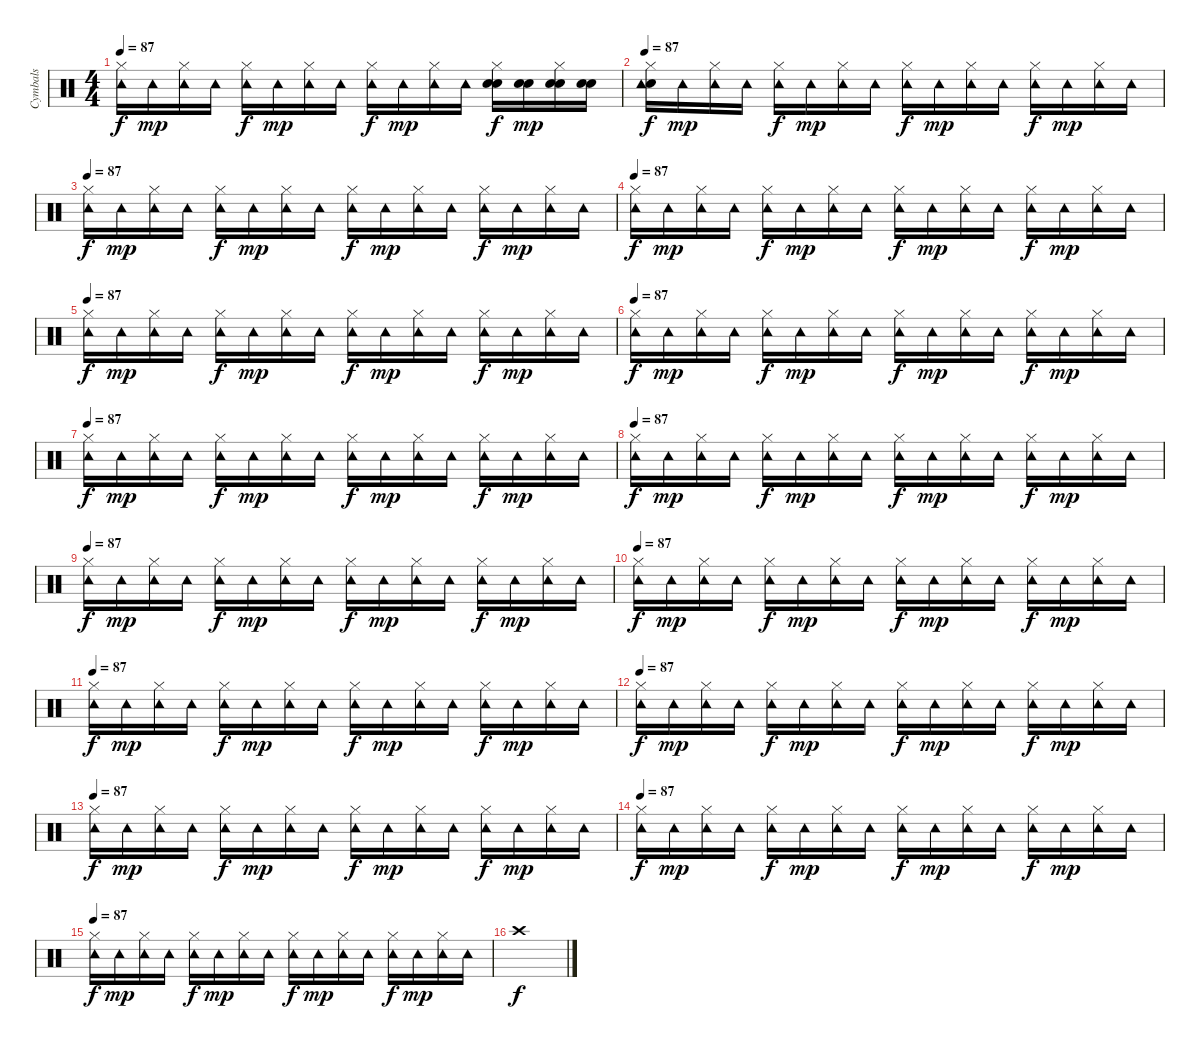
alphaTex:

\track ("Cymbals" "Cymbals") {instrument percussion}
\staff {score}
\articulation defaults
\ts (4 4)
\tempo 87
\clef neutral
\ks c
("Hi-Hat (closed)" "Tambourine (hit)").16{dy f} "Tambourine (hit)".16{dy mp} ("Hi-Hat (closed)" "Tambourine (hit)").16 "Tambourine (hit)".16 ("Hi-Hat (closed)" "Tambourine (hit)").16{dy f} "Tambourine (hit)".16{dy mp} ("Hi-Hat (closed)" "Tambourine (hit)").16 "Tambourine (hit)".16 ("Hi-Hat (closed)" "Tambourine (hit)").16{dy f} "Tambourine (hit)".16{dy mp} ("Hi-Hat (closed)" "Tambourine (hit)").16 "Tambourine (hit)".16 ("Electric Snare (hit)" "Hi-Hat (closed)" "Snare (hit) 2").16{dy f} ("Electric Snare (hit)" "Snare (hit) 2").16{dy mp} ("Electric Snare (hit)" "Hi-Hat (closed)" "Snare (hit) 2").16 ("Electric Snare (hit)" "Snare (hit) 2").16 |
\tempo 87
("Electric Snare (hit)" "Hi-Hat (closed)" "Tambourine (hit)").16{dy f} "Tambourine (hit)".16{dy mp} ("Hi-Hat (closed)" "Tambourine (hit)").16 "Tambourine (hit)".16 ("Hi-Hat (closed)" "Tambourine (hit)").16{dy f} "Tambourine (hit)".16{dy mp} ("Hi-Hat (closed)" "Tambourine (hit)").16 "Tambourine (hit)".16 ("Hi-Hat (closed)" "Tambourine (hit)").16{dy f} "Tambourine (hit)".16{dy mp} ("Hi-Hat (closed)" "Tambourine (hit)").16 "Tambourine (hit)".16 ("Hi-Hat (closed)" "Tambourine (hit)").16{dy f} "Tambourine (hit)".16{dy mp} ("Hi-Hat (closed)" "Tambourine (hit)").16 "Tambourine (hit)".16 |
\tempo 87
("Hi-Hat (closed)" "Tambourine (hit)").16{dy f} "Tambourine (hit)".16{dy mp} ("Hi-Hat (closed)" "Tambourine (hit)").16 "Tambourine (hit)".16 ("Hi-Hat (closed)" "Tambourine (hit)").16{dy f} "Tambourine (hit)".16{dy mp} ("Hi-Hat (closed)" "Tambourine (hit)").16 "Tambourine (hit)".16 ("Hi-Hat (closed)" "Tambourine (hit)").16{dy f} "Tambourine (hit)".16{dy mp} ("Hi-Hat (closed)" "Tambourine (hit)").16 "Tambourine (hit)".16 ("Hi-Hat (closed)" "Tambourine (hit)").16{dy f} "Tambourine (hit)".16{dy mp} ("Hi-Hat (closed)" "Tambourine (hit)").16 "Tambourine (hit)".16 |
\tempo 87
("Hi-Hat (closed)" "Tambourine (hit)").16{dy f} "Tambourine (hit)".16{dy mp} ("Hi-Hat (closed)" "Tambourine (hit)").16 "Tambourine (hit)".16 ("Hi-Hat (closed)" "Tambourine (hit)").16{dy f} "Tambourine (hit)".16{dy mp} ("Hi-Hat (closed)" "Tambourine (hit)").16 "Tambourine (hit)".16 ("Hi-Hat (closed)" "Tambourine (hit)").16{dy f} "Tambourine (hit)".16{dy mp} ("Hi-Hat (closed)" "Tambourine (hit)").16 "Tambourine (hit)".16 ("Hi-Hat (closed)" "Tambourine (hit)").16{dy f} "Tambourine (hit)".16{dy mp} ("Hi-Hat (closed)" "Tambourine (hit)").16 "Tambourine (hit)".16 |
\tempo 87
("Hi-Hat (closed)" "Tambourine (hit)").16{dy f} "Tambourine (hit)".16{dy mp} ("Hi-Hat (closed)" "Tambourine (hit)").16 "Tambourine (hit)".16 ("Hi-Hat (closed)" "Tambourine (hit)").16{dy f} "Tambourine (hit)".16{dy mp} ("Hi-Hat (closed)" "Tambourine (hit)").16 "Tambourine (hit)".16 ("Hi-Hat (closed)" "Tambourine (hit)").16{dy f} "Tambourine (hit)".16{dy mp} ("Hi-Hat (closed)" "Tambourine (hit)").16 "Tambourine (hit)".16 ("Hi-Hat (closed)" "Tambourine (hit)").16{dy f} "Tambourine (hit)".16{dy mp} ("Hi-Hat (closed)" "Tambourine (hit)").16 "Tambourine (hit)".16 |
\tempo 87
("Hi-Hat (closed)" "Tambourine (hit)").16{dy f} "Tambourine (hit)".16{dy mp} ("Hi-Hat (closed)" "Tambourine (hit)").16 "Tambourine (hit)".16 ("Hi-Hat (closed)" "Tambourine (hit)").16{dy f} "Tambourine (hit)".16{dy mp} ("Hi-Hat (closed)" "Tambourine (hit)").16 "Tambourine (hit)".16 ("Hi-Hat (closed)" "Tambourine (hit)").16{dy f} "Tambourine (hit)".16{dy mp} ("Hi-Hat (closed)" "Tambourine (hit)").16 "Tambourine (hit)".16 ("Hi-Hat (closed)" "Tambourine (hit)").16{dy f} "Tambourine (hit)".16{dy mp} ("Hi-Hat (closed)" "Tambourine (hit)").16 "Tambourine (hit)".16 |
\tempo 87
("Hi-Hat (closed)" "Tambourine (hit)").16{dy f} "Tambourine (hit)".16{dy mp} ("Hi-Hat (closed)" "Tambourine (hit)").16 "Tambourine (hit)".16 ("Hi-Hat (closed)" "Tambourine (hit)").16{dy f} "Tambourine (hit)".16{dy mp} ("Hi-Hat (closed)" "Tambourine (hit)").16 "Tambourine (hit)".16 ("Hi-Hat (closed)" "Tambourine (hit)").16{dy f} "Tambourine (hit)".16{dy mp} ("Hi-Hat (closed)" "Tambourine (hit)").16 "Tambourine (hit)".16 ("Hi-Hat (closed)" "Tambourine (hit)").16{dy f} "Tambourine (hit)".16{dy mp} ("Hi-Hat (closed)" "Tambourine (hit)").16 "Tambourine (hit)".16 |
\tempo 87
("Hi-Hat (closed)" "Tambourine (hit)").16{dy f} "Tambourine (hit)".16{dy mp} ("Hi-Hat (closed)" "Tambourine (hit)").16 "Tambourine (hit)".16 ("Hi-Hat (closed)" "Tambourine (hit)").16{dy f} "Tambourine (hit)".16{dy mp} ("Hi-Hat (closed)" "Tambourine (hit)").16 "Tambourine (hit)".16 ("Hi-Hat (closed)" "Tambourine (hit)").16{dy f} "Tambourine (hit)".16{dy mp} ("Hi-Hat (closed)" "Tambourine (hit)").16 "Tambourine (hit)".16 ("Hi-Hat (closed)" "Tambourine (hit)").16{dy f} "Tambourine (hit)".16{dy mp} ("Hi-Hat (closed)" "Tambourine (hit)").16 "Tambourine (hit)".16 |
\tempo 87
("Hi-Hat (closed)" "Tambourine (hit)").16{dy f} "Tambourine (hit)".16{dy mp} ("Hi-Hat (closed)" "Tambourine (hit)").16 "Tambourine (hit)".16 ("Hi-Hat (closed)" "Tambourine (hit)").16{dy f} "Tambourine (hit)".16{dy mp} ("Hi-Hat (closed)" "Tambourine (hit)").16 "Tambourine (hit)".16 ("Hi-Hat (closed)" "Tambourine (hit)").16{dy f} "Tambourine (hit)".16{dy mp} ("Hi-Hat (closed)" "Tambourine (hit)").16 "Tambourine (hit)".16 ("Hi-Hat (closed)" "Tambourine (hit)").16{dy f} "Tambourine (hit)".16{dy mp} ("Hi-Hat (closed)" "Tambourine (hit)").16 "Tambourine (hit)".16 |
\tempo 87
("Hi-Hat (closed)" "Tambourine (hit)").16{dy f} "Tambourine (hit)".16{dy mp} ("Hi-Hat (closed)" "Tambourine (hit)").16 "Tambourine (hit)".16 ("Hi-Hat (closed)" "Tambourine (hit)").16{dy f} "Tambourine (hit)".16{dy mp} ("Hi-Hat (closed)" "Tambourine (hit)").16 "Tambourine (hit)".16 ("Hi-Hat (closed)" "Tambourine (hit)").16{dy f} "Tambourine (hit)".16{dy mp} ("Hi-Hat (closed)" "Tambourine (hit)").16 "Tambourine (hit)".16 ("Hi-Hat (closed)" "Tambourine (hit)").16{dy f} "Tambourine (hit)".16{dy mp} ("Hi-Hat (closed)" "Tambourine (hit)").16 "Tambourine (hit)".16 |
\tempo 87
("Hi-Hat (closed)" "Tambourine (hit)").16{dy f} "Tambourine (hit)".16{dy mp} ("Hi-Hat (closed)" "Tambourine (hit)").16 "Tambourine (hit)".16 ("Hi-Hat (closed)" "Tambourine (hit)").16{dy f} "Tambourine (hit)".16{dy mp} ("Hi-Hat (closed)" "Tambourine (hit)").16 "Tambourine (hit)".16 ("Hi-Hat (closed)" "Tambourine (hit)").16{dy f} "Tambourine (hit)".16{dy mp} ("Hi-Hat (closed)" "Tambourine (hit)").16 "Tambourine (hit)".16 ("Hi-Hat (closed)" "Tambourine (hit)").16{dy f} "Tambourine (hit)".16{dy mp} ("Hi-Hat (closed)" "Tambourine (hit)").16 "Tambourine (hit)".16 |
\tempo 87
("Hi-Hat (closed)" "Tambourine (hit)").16{dy f} "Tambourine (hit)".16{dy mp} ("Hi-Hat (closed)" "Tambourine (hit)").16 "Tambourine (hit)".16 ("Hi-Hat (closed)" "Tambourine (hit)").16{dy f} "Tambourine (hit)".16{dy mp} ("Hi-Hat (closed)" "Tambourine (hit)").16 "Tambourine (hit)".16 ("Hi-Hat (closed)" "Tambourine (hit)").16{dy f} "Tambourine (hit)".16{dy mp} ("Hi-Hat (closed)" "Tambourine (hit)").16 "Tambourine (hit)".16 ("Hi-Hat (closed)" "Tambourine (hit)").16{dy f} "Tambourine (hit)".16{dy mp} ("Hi-Hat (closed)" "Tambourine (hit)").16 "Tambourine (hit)".16 |
\tempo 87
("Hi-Hat (closed)" "Tambourine (hit)").16{dy f} "Tambourine (hit)".16{dy mp} ("Hi-Hat (closed)" "Tambourine (hit)").16 "Tambourine (hit)".16 ("Hi-Hat (closed)" "Tambourine (hit)").16{dy f} "Tambourine (hit)".16{dy mp} ("Hi-Hat (closed)" "Tambourine (hit)").16 "Tambourine (hit)".16 ("Hi-Hat (closed)" "Tambourine (hit)").16{dy f} "Tambourine (hit)".16{dy mp} ("Hi-Hat (closed)" "Tambourine (hit)").16 "Tambourine (hit)".16 ("Hi-Hat (closed)" "Tambourine (hit)").16{dy f} "Tambourine (hit)".16{dy mp} ("Hi-Hat (closed)" "Tambourine (hit)").16 "Tambourine (hit)".16 |
\tempo 87
("Hi-Hat (closed)" "Tambourine (hit)").16{dy f} "Tambourine (hit)".16{dy mp} ("Hi-Hat (closed)" "Tambourine (hit)").16 "Tambourine (hit)".16 ("Hi-Hat (closed)" "Tambourine (hit)").16{dy f} "Tambourine (hit)".16{dy mp} ("Hi-Hat (closed)" "Tambourine (hit)").16 "Tambourine (hit)".16 ("Hi-Hat (closed)" "Tambourine (hit)").16{dy f} "Tambourine (hit)".16{dy mp} ("Hi-Hat (closed)" "Tambourine (hit)").16 "Tambourine (hit)".16 ("Hi-Hat (closed)" "Tambourine (hit)").16{dy f} "Tambourine (hit)".16{dy mp} ("Hi-Hat (closed)" "Tambourine (hit)").16 "Tambourine (hit)".16 |
\tempo 87
("Hi-Hat (closed)" "Tambourine (hit)").16{dy f} "Tambourine (hit)".16{dy mp} ("Hi-Hat (closed)" "Tambourine (hit)").16 "Tambourine (hit)".16 ("Hi-Hat (closed)" "Tambourine (hit)").16{dy f} "Tambourine (hit)".16{dy mp} ("Hi-Hat (closed)" "Tambourine (hit)").16 "Tambourine (hit)".16 ("Hi-Hat (closed)" "Tambourine (hit)").16{dy f} "Tambourine (hit)".16{dy mp} ("Hi-Hat (closed)" "Tambourine (hit)").16 "Tambourine (hit)".16 ("Hi-Hat (closed)" "Tambourine (hit)").16{dy f} "Tambourine (hit)".16{dy mp} ("Hi-Hat (closed)" "Tambourine (hit)").16 "Tambourine (hit)".16 |
"Crash high (hit)".1{dy f}
